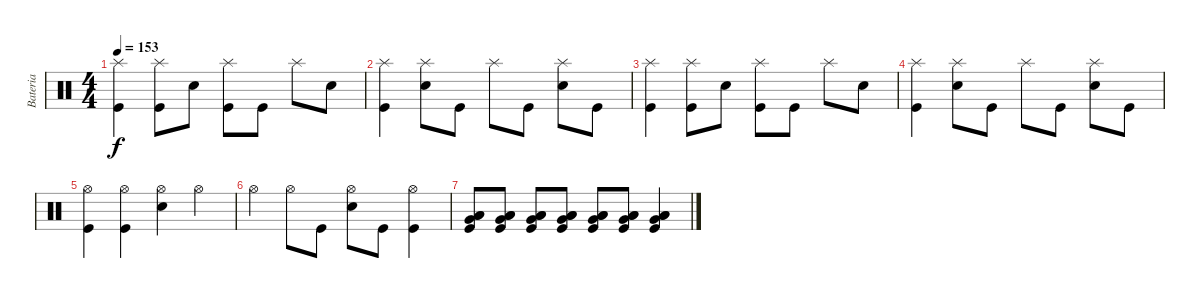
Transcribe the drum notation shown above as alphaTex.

\track ("Bateria" "Bateria") {instrument percussion}
\staff {score}
\articulation defaults
\ts (4 4)
\tempo 153
\clef neutral
\ks c
("Kick (hit)" "Splash (hit)").4{dy f} ("Kick (hit)" "Splash (hit)").8 "Snare (hit) 2".8 ("Splash (hit)" "Kick (hit)").8 "Kick (hit)".8 "Splash (hit)".8 "Snare (hit) 2".8 |
("Kick (hit)" "Splash (hit)").4 ("Splash (hit)" "Snare (hit) 2").8 "Kick (hit)".8 "Splash (hit)".8 "Kick (hit)".8 ("Snare (hit) 2" "Splash (hit)").8 "Kick (hit)".8 |
("Kick (hit)" "Splash (hit)").4 ("Kick (hit)" "Splash (hit)").8 "Snare (hit) 2".8 ("Splash (hit)" "Kick (hit)").8 "Kick (hit)".8 "Splash (hit)".8 "Snare (hit) 2".8 |
("Kick (hit)" "Splash (hit)").4 ("Splash (hit)" "Snare (hit) 2").8 "Kick (hit)".8 "Splash (hit)".8 "Kick (hit)".8 ("Snare (hit) 2" "Splash (hit)").8 "Kick (hit)".8 |
("Kick (hit)" "Hi-Hat (open)").4 ("Kick (hit)" "Hi-Hat (open)").4 ("Snare (hit) 2" "Hi-Hat (open)").4 "Hi-Hat (open)".4 |
"Hi-Hat (open)".4 "Hi-Hat (open)".8 "Kick (hit)".8 ("Snare (hit) 2" "Hi-Hat (open)").8 "Kick (hit)".8 ("Kick (hit)" "Hi-Hat (open)").4 |
("Kick (hit)" "Low Floor Tom (hit)" "Very Low Tom (hit)" "Low Tom (hit)").8 ("Kick (hit)" "Low Floor Tom (hit)" "Very Low Tom (hit)" "Low Tom (hit)").8 ("Kick (hit)" "Low Floor Tom (hit)" "Very Low Tom (hit)" "Low Tom (hit)").8 ("Kick (hit)" "Low Floor Tom (hit)" "Very Low Tom (hit)" "Low Tom (hit)").8 ("Kick (hit)" "Low Floor Tom (hit)" "Very Low Tom (hit)" "Low Tom (hit)").8 ("Kick (hit)" "Low Floor Tom (hit)" "Very Low Tom (hit)" "Low Tom (hit)").8 ("Kick (hit)" "Low Floor Tom (hit)" "Very Low Tom (hit)" "Low Tom (hit)").4
